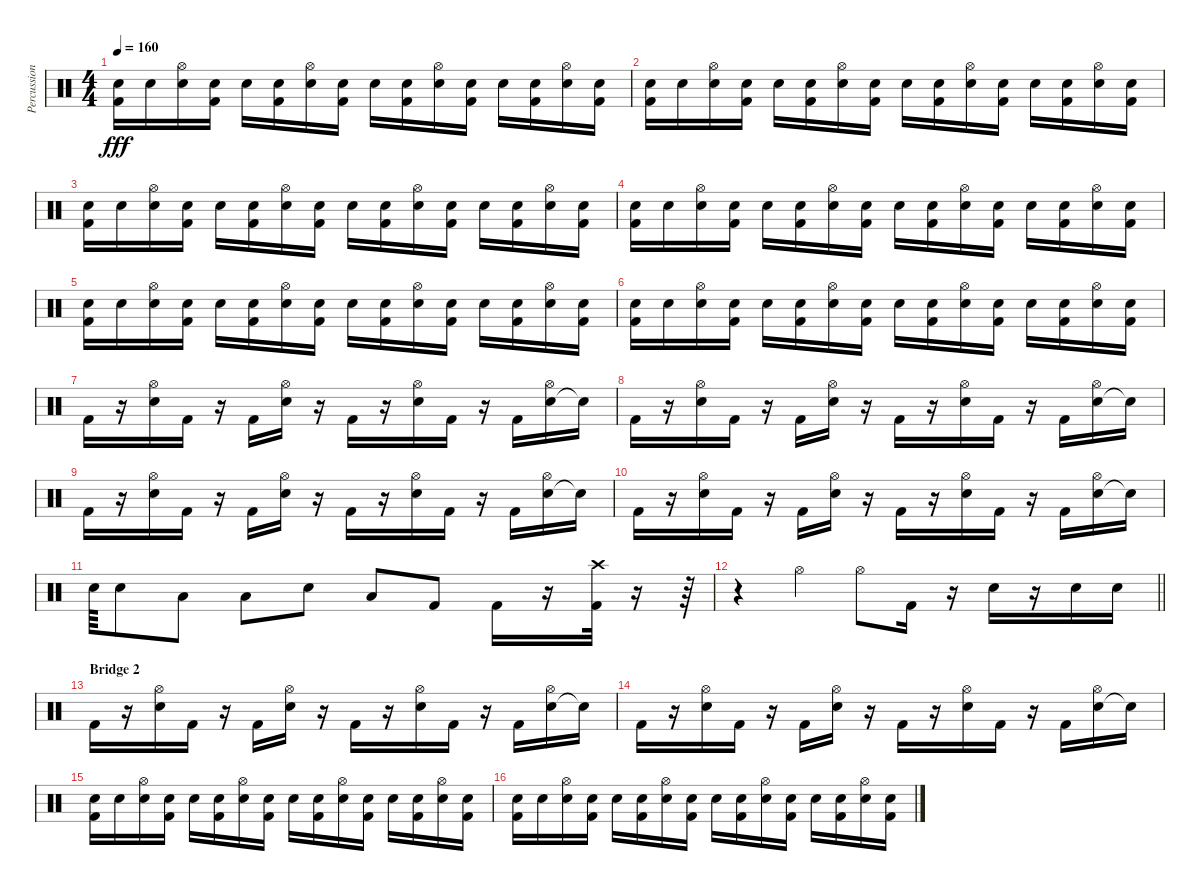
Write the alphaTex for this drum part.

\track ("Percussion" "Percussion") {instrument percussion}
\staff {score}
\articulation defaults
\ts (4 4)
\tempo 160
\clef neutral
\ks c
("Snare (hit) 2" "Kick (hit) 2").16{dy fff} "Snare (hit) 2".16 ("Snare (hit) 2" "Hi-Hat (open)").16 ("Snare (hit) 2" "Kick (hit) 2").16 "Snare (hit) 2".16 ("Snare (hit) 2" "Kick (hit) 2").16 ("Snare (hit) 2" "Hi-Hat (open)").16 ("Snare (hit) 2" "Kick (hit) 2").16 "Snare (hit) 2".16 ("Snare (hit) 2" "Kick (hit) 2").16 ("Snare (hit) 2" "Hi-Hat (open)").16 ("Snare (hit) 2" "Kick (hit) 2").16 "Snare (hit) 2".16 ("Snare (hit) 2" "Kick (hit) 2").16 ("Snare (hit) 2" "Hi-Hat (open)").16 ("Snare (hit) 2" "Kick (hit) 2").16 |
("Snare (hit) 2" "Kick (hit) 2").16 "Snare (hit) 2".16 ("Snare (hit) 2" "Hi-Hat (open)").16 ("Snare (hit) 2" "Kick (hit) 2").16 "Snare (hit) 2".16 ("Snare (hit) 2" "Kick (hit) 2").16 ("Snare (hit) 2" "Hi-Hat (open)").16 ("Snare (hit) 2" "Kick (hit) 2").16 "Snare (hit) 2".16 ("Snare (hit) 2" "Kick (hit) 2").16 ("Snare (hit) 2" "Hi-Hat (open)").16 ("Snare (hit) 2" "Kick (hit) 2").16 "Snare (hit) 2".16 ("Snare (hit) 2" "Kick (hit) 2").16 ("Snare (hit) 2" "Hi-Hat (open)").16 ("Snare (hit) 2" "Kick (hit) 2").16 |
("Snare (hit) 2" "Kick (hit) 2").16 "Snare (hit) 2".16 ("Snare (hit) 2" "Hi-Hat (open)").16 ("Snare (hit) 2" "Kick (hit) 2").16 "Snare (hit) 2".16 ("Snare (hit) 2" "Kick (hit) 2").16 ("Snare (hit) 2" "Hi-Hat (open)").16 ("Snare (hit) 2" "Kick (hit) 2").16 "Snare (hit) 2".16 ("Snare (hit) 2" "Kick (hit) 2").16 ("Snare (hit) 2" "Hi-Hat (open)").16 ("Snare (hit) 2" "Kick (hit) 2").16 "Snare (hit) 2".16 ("Snare (hit) 2" "Kick (hit) 2").16 ("Snare (hit) 2" "Hi-Hat (open)").16 ("Snare (hit) 2" "Kick (hit) 2").16 |
("Snare (hit) 2" "Kick (hit) 2").16 "Snare (hit) 2".16 ("Snare (hit) 2" "Hi-Hat (open)").16 ("Snare (hit) 2" "Kick (hit) 2").16 "Snare (hit) 2".16 ("Snare (hit) 2" "Kick (hit) 2").16 ("Snare (hit) 2" "Hi-Hat (open)").16 ("Snare (hit) 2" "Kick (hit) 2").16 "Snare (hit) 2".16 ("Snare (hit) 2" "Kick (hit) 2").16 ("Snare (hit) 2" "Hi-Hat (open)").16 ("Snare (hit) 2" "Kick (hit) 2").16 "Snare (hit) 2".16 ("Snare (hit) 2" "Kick (hit) 2").16 ("Snare (hit) 2" "Hi-Hat (open)").16 ("Snare (hit) 2" "Kick (hit) 2").16 |
("Snare (hit) 2" "Kick (hit) 2").16 "Snare (hit) 2".16 ("Snare (hit) 2" "Hi-Hat (open)").16 ("Snare (hit) 2" "Kick (hit) 2").16 "Snare (hit) 2".16 ("Snare (hit) 2" "Kick (hit) 2").16 ("Snare (hit) 2" "Hi-Hat (open)").16 ("Snare (hit) 2" "Kick (hit) 2").16 "Snare (hit) 2".16 ("Snare (hit) 2" "Kick (hit) 2").16 ("Snare (hit) 2" "Hi-Hat (open)").16 ("Snare (hit) 2" "Kick (hit) 2").16 "Snare (hit) 2".16 ("Snare (hit) 2" "Kick (hit) 2").16 ("Snare (hit) 2" "Hi-Hat (open)").16 ("Snare (hit) 2" "Kick (hit) 2").16 |
("Snare (hit) 2" "Kick (hit) 2").16 "Snare (hit) 2".16 ("Snare (hit) 2" "Hi-Hat (open)").16 ("Snare (hit) 2" "Kick (hit) 2").16 "Snare (hit) 2".16 ("Snare (hit) 2" "Kick (hit) 2").16 ("Snare (hit) 2" "Hi-Hat (open)").16 ("Snare (hit) 2" "Kick (hit) 2").16 "Snare (hit) 2".16 ("Snare (hit) 2" "Kick (hit) 2").16 ("Snare (hit) 2" "Hi-Hat (open)").16 ("Snare (hit) 2" "Kick (hit) 2").16 "Snare (hit) 2".16 ("Snare (hit) 2" "Kick (hit) 2").16 ("Snare (hit) 2" "Hi-Hat (open)").16 ("Snare (hit) 2" "Kick (hit) 2").16 |
"Kick (hit) 2".16 r.16 ("Snare (hit) 2" "Hi-Hat (open)").16 "Kick (hit) 2".16 r.16 "Kick (hit) 2".16 ("Snare (hit) 2" "Hi-Hat (open)").16 r.16 "Kick (hit) 2".16 r.16 ("Snare (hit) 2" "Hi-Hat (open)").16 "Kick (hit) 2".16 r.16 "Kick (hit) 2".16 ("Snare (hit) 2" "Hi-Hat (open)").16 "Snare (hit)"{t}.16 |
"Kick (hit) 2".16 r.16 ("Snare (hit) 2" "Hi-Hat (open)").16 "Kick (hit) 2".16 r.16 "Kick (hit) 2".16 ("Snare (hit) 2" "Hi-Hat (open)").16 r.16 "Kick (hit) 2".16 r.16 ("Snare (hit) 2" "Hi-Hat (open)").16 "Kick (hit) 2".16 r.16 "Kick (hit) 2".16 ("Snare (hit) 2" "Hi-Hat (open)").16 "Snare (hit)"{t}.16 |
"Kick (hit) 2".16 r.16 ("Snare (hit) 2" "Hi-Hat (open)").16 "Kick (hit) 2".16 r.16 "Kick (hit) 2".16 ("Snare (hit) 2" "Hi-Hat (open)").16 r.16 "Kick (hit) 2".16 r.16 ("Snare (hit) 2" "Hi-Hat (open)").16 "Kick (hit) 2".16 r.16 "Kick (hit) 2".16 ("Snare (hit) 2" "Hi-Hat (open)").16 "Snare (hit)"{t}.16 |
"Kick (hit) 2".16 r.16 ("Snare (hit) 2" "Hi-Hat (open)").16 "Kick (hit) 2".16 r.16 "Kick (hit) 2".16 ("Snare (hit) 2" "Hi-Hat (open)").16 r.16 "Kick (hit) 2".16 r.16 ("Snare (hit) 2" "Hi-Hat (open)").16 "Kick (hit) 2".16 r.16 "Kick (hit) 2".16 ("Snare (hit) 2" "Hi-Hat (open)").16 "Snare (hit)"{t}.16 |
"Snare (hit) 2".64{volume 10} "Snare (hit) 2".8 "Low Tom (hit)".8 "Low Tom (hit)".8 "Snare (hit) 2".8 "Low Tom (hit)".8 "Kick (hit) 2".8 "Kick (hit) 2".16 r.16 ("Kick (hit) 2" "Crash high (hit)").32 r.16 r.64 |
\barLineRight lightlight
r.4 "Hi-Hat (open)".4 "Hi-Hat (open)".8 "Kick (hit) 2".16 r.16 "Snare (hit) 2".16 r.16 "Snare (hit) 2".16 "Snare (hit) 2".16 |
\section ("" "Bridge 2")
"Kick (hit) 2".16 r.16 ("Snare (hit) 2" "Hi-Hat (open)").16 "Kick (hit) 2".16 r.16 "Kick (hit) 2".16 ("Snare (hit) 2" "Hi-Hat (open)").16 r.16 "Kick (hit) 2".16 r.16 ("Snare (hit) 2" "Hi-Hat (open)").16 "Kick (hit) 2".16 r.16 "Kick (hit) 2".16 ("Snare (hit) 2" "Hi-Hat (open)").16 "Snare (hit)"{t}.16 |
"Kick (hit) 2".16 r.16 ("Snare (hit) 2" "Hi-Hat (open)").16 "Kick (hit) 2".16 r.16 "Kick (hit) 2".16 ("Snare (hit) 2" "Hi-Hat (open)").16 r.16 "Kick (hit) 2".16 r.16 ("Snare (hit) 2" "Hi-Hat (open)").16 "Kick (hit) 2".16 r.16 "Kick (hit) 2".16 ("Snare (hit) 2" "Hi-Hat (open)").16 "Snare (hit)"{t}.16 |
("Snare (hit) 2" "Kick (hit) 2").16 "Snare (hit) 2".16 ("Snare (hit) 2" "Hi-Hat (open)").16 ("Snare (hit) 2" "Kick (hit) 2").16 "Snare (hit) 2".16 ("Snare (hit) 2" "Kick (hit) 2").16 ("Snare (hit) 2" "Hi-Hat (open)").16 ("Snare (hit) 2" "Kick (hit) 2").16 "Snare (hit) 2".16 ("Snare (hit) 2" "Kick (hit) 2").16 ("Snare (hit) 2" "Hi-Hat (open)").16 ("Snare (hit) 2" "Kick (hit) 2").16 "Snare (hit) 2".16 ("Snare (hit) 2" "Kick (hit) 2").16 ("Snare (hit) 2" "Hi-Hat (open)").16 ("Snare (hit) 2" "Kick (hit) 2").16 |
("Snare (hit) 2" "Kick (hit) 2").16 "Snare (hit) 2".16 ("Snare (hit) 2" "Hi-Hat (open)").16 ("Snare (hit) 2" "Kick (hit) 2").16 "Snare (hit) 2".16 ("Snare (hit) 2" "Kick (hit) 2").16 ("Snare (hit) 2" "Hi-Hat (open)").16 ("Snare (hit) 2" "Kick (hit) 2").16 "Snare (hit) 2".16 ("Snare (hit) 2" "Kick (hit) 2").16 ("Snare (hit) 2" "Hi-Hat (open)").16 ("Snare (hit) 2" "Kick (hit) 2").16 "Snare (hit) 2".16 ("Snare (hit) 2" "Kick (hit) 2").16 ("Snare (hit) 2" "Hi-Hat (open)").16 ("Snare (hit) 2" "Kick (hit) 2").16
